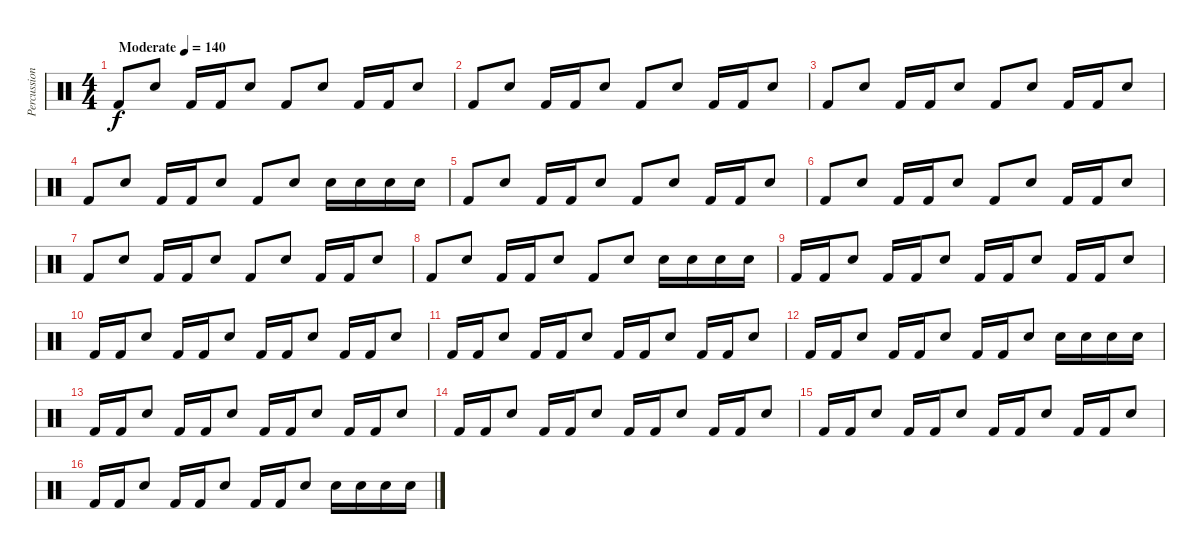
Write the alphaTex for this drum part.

\track ("Percussion" "Percussion") {instrument percussion}
\staff {score}
\articulation defaults
\ts (4 4)
\tempo (140 "Moderate")
\clef neutral
\ks c "Kick (hit) 2".8{dy f} "Snare (hit) 2".8 "Kick (hit) 2".16 "Kick (hit) 2".16 "Snare (hit) 2".8 "Kick (hit) 2".8 "Snare (hit) 2".8 "Kick (hit) 2".16 "Kick (hit) 2".16 "Snare (hit) 2".8
|
"Kick (hit) 2".8 "Snare (hit) 2".8 "Kick (hit) 2".16 "Kick (hit) 2".16 "Snare (hit) 2".8 "Kick (hit) 2".8 "Snare (hit) 2".8 "Kick (hit) 2".16 "Kick (hit) 2".16 "Snare (hit) 2".8 |
"Kick (hit) 2".8 "Snare (hit) 2".8 "Kick (hit) 2".16 "Kick (hit) 2".16 "Snare (hit) 2".8 "Kick (hit) 2".8 "Snare (hit) 2".8 "Kick (hit) 2".16 "Kick (hit) 2".16 "Snare (hit) 2".8 |
"Kick (hit) 2".8 "Snare (hit) 2".8 "Kick (hit) 2".16 "Kick (hit) 2".16 "Snare (hit) 2".8 "Kick (hit) 2".8 "Snare (hit) 2".8 "Snare (hit) 2".16 "Snare (hit) 2".16 "Snare (hit) 2".16 "Snare (hit) 2".16 |
"Kick (hit) 2".8 "Snare (hit) 2".8 "Kick (hit) 2".16 "Kick (hit) 2".16 "Snare (hit) 2".8 "Kick (hit) 2".8 "Snare (hit) 2".8 "Kick (hit) 2".16 "Kick (hit) 2".16 "Snare (hit) 2".8 |
"Kick (hit) 2".8 "Snare (hit) 2".8 "Kick (hit) 2".16 "Kick (hit) 2".16 "Snare (hit) 2".8 "Kick (hit) 2".8 "Snare (hit) 2".8 "Kick (hit) 2".16 "Kick (hit) 2".16 "Snare (hit) 2".8 |
"Kick (hit) 2".8 "Snare (hit) 2".8 "Kick (hit) 2".16 "Kick (hit) 2".16 "Snare (hit) 2".8 "Kick (hit) 2".8 "Snare (hit) 2".8 "Kick (hit) 2".16 "Kick (hit) 2".16 "Snare (hit) 2".8 |
"Kick (hit) 2".8 "Snare (hit) 2".8 "Kick (hit) 2".16 "Kick (hit) 2".16 "Snare (hit) 2".8 "Kick (hit) 2".8 "Snare (hit) 2".8 "Snare (hit) 2".16 "Snare (hit) 2".16 "Snare (hit) 2".16 "Snare (hit) 2".16 |
"Kick (hit) 2".16 "Kick (hit) 2".16 "Snare (hit) 2".8 "Kick (hit) 2".16 "Kick (hit) 2".16 "Snare (hit) 2".8 "Kick (hit) 2".16 "Kick (hit) 2".16 "Snare (hit) 2".8 "Kick (hit) 2".16 "Kick (hit) 2".16 "Snare (hit) 2".8 |
"Kick (hit) 2".16 "Kick (hit) 2".16 "Snare (hit) 2".8 "Kick (hit) 2".16 "Kick (hit) 2".16 "Snare (hit) 2".8 "Kick (hit) 2".16 "Kick (hit) 2".16 "Snare (hit) 2".8 "Kick (hit) 2".16 "Kick (hit) 2".16 "Snare (hit) 2".8 |
"Kick (hit) 2".16 "Kick (hit) 2".16 "Snare (hit) 2".8 "Kick (hit) 2".16 "Kick (hit) 2".16 "Snare (hit) 2".8 "Kick (hit) 2".16 "Kick (hit) 2".16 "Snare (hit) 2".8 "Kick (hit) 2".16 "Kick (hit) 2".16 "Snare (hit) 2".8 |
"Kick (hit) 2".16 "Kick (hit) 2".16 "Snare (hit) 2".8 "Kick (hit) 2".16 "Kick (hit) 2".16 "Snare (hit) 2".8 "Kick (hit) 2".16 "Kick (hit) 2".16 "Snare (hit) 2".8 "Snare (hit) 2".16 "Snare (hit) 2".16 "Snare (hit) 2".16 "Snare (hit) 2".16 |
"Kick (hit) 2".16 "Kick (hit) 2".16 "Snare (hit) 2".8 "Kick (hit) 2".16 "Kick (hit) 2".16 "Snare (hit) 2".8 "Kick (hit) 2".16 "Kick (hit) 2".16 "Snare (hit) 2".8 "Kick (hit) 2".16 "Kick (hit) 2".16 "Snare (hit) 2".8 |
"Kick (hit) 2".16 "Kick (hit) 2".16 "Snare (hit) 2".8 "Kick (hit) 2".16 "Kick (hit) 2".16 "Snare (hit) 2".8 "Kick (hit) 2".16 "Kick (hit) 2".16 "Snare (hit) 2".8 "Kick (hit) 2".16 "Kick (hit) 2".16 "Snare (hit) 2".8 |
"Kick (hit) 2".16 "Kick (hit) 2".16 "Snare (hit) 2".8 "Kick (hit) 2".16 "Kick (hit) 2".16 "Snare (hit) 2".8 "Kick (hit) 2".16 "Kick (hit) 2".16 "Snare (hit) 2".8 "Kick (hit) 2".16 "Kick (hit) 2".16 "Snare (hit) 2".8 |
"Kick (hit) 2".16 "Kick (hit) 2".16 "Snare (hit) 2".8 "Kick (hit) 2".16 "Kick (hit) 2".16 "Snare (hit) 2".8 "Kick (hit) 2".16 "Kick (hit) 2".16 "Snare (hit) 2".8 "Snare (hit) 2".16 "Snare (hit) 2".16 "Snare (hit) 2".16 "Snare (hit) 2".16
